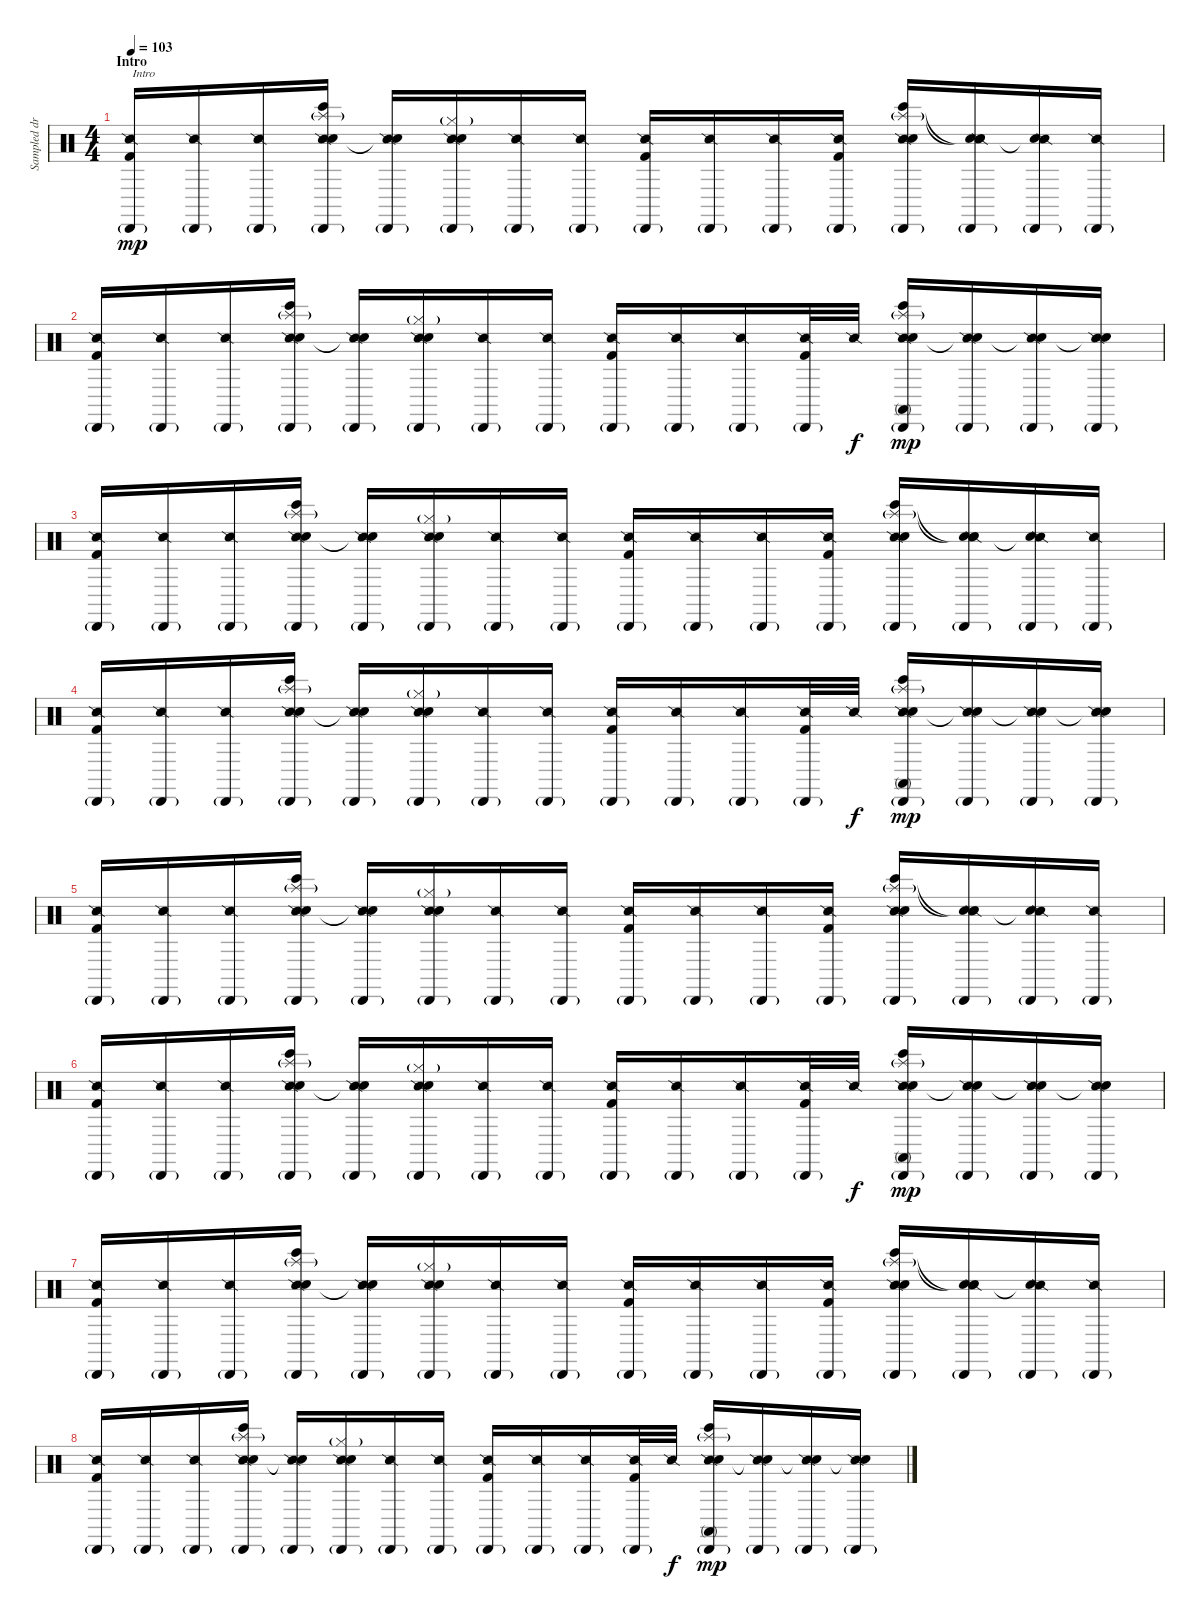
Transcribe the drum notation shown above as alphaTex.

\track ("Sampled drums (Rob with Joe)" "Sampled dr") {instrument percussion}
\staff {score}
\articulation defaults
\ts (4 4)
\section ("" "Intro")
\tempo 103
\clef neutral
\ks c
("Cabasa (hit)"{g} "Snare (side stick) 2" "Kick (hit) 2").16{txt "Intro" dy mp} ("Cabasa (hit)"{g} "Snare (side stick) 2").16 ("Cabasa (hit)"{g} "Snare (side stick) 2").16 ("Cabasa (hit)"{g} "Splash (hit)"{g} "Snare (side stick) 2" "Bongo High (hit)" "Snare (hit) 2").16 ("Cabasa (hit)"{g} "Snare (side stick) 2" "Snare (hit)"{t}).16 ("Cabasa (hit)"{g} "Hi-Hat (closed)"{g} "Snare (side stick) 2" "Snare (hit) 2").16 ("Cabasa (hit)"{g} "Snare (side stick) 2").16 ("Cabasa (hit)"{g} "Snare (side stick) 2").16 ("Cabasa (hit)"{g} "Snare (side stick) 2" "Kick (hit) 2").16 ("Cabasa (hit)"{g} "Snare (side stick) 2").16 ("Cabasa (hit)"{g} "Snare (side stick) 2").16 ("Cabasa (hit)"{g} "Snare (side stick) 2" "Kick (hit) 2").16 ("Cabasa (hit)"{g} "Splash (hit)"{g} "Snare (side stick) 2" "Bongo High (hit)" "Snare (hit) 2").16 ("Cabasa (hit)"{g} "Snare (hit)"{t} "Snare (side stick) 2" "Snare (hit)"{t}).16 ("Cabasa (hit)"{g} "Snare (hit)"{t} "Snare (side stick) 2").16 ("Cabasa (hit)"{g} "Snare (side stick) 2").16 |
("Cabasa (hit)"{g} "Snare (side stick) 2" "Kick (hit) 2").16 ("Cabasa (hit)"{g} "Snare (side stick) 2").16 ("Cabasa (hit)"{g} "Snare (side stick) 2").16 ("Cabasa (hit)"{g} "Splash (hit)"{g} "Snare (side stick) 2" "Bongo High (hit)" "Snare (hit) 2").16 ("Cabasa (hit)"{g} "Snare (side stick) 2" "Snare (hit)"{t}).16 ("Cabasa (hit)"{g} "Hi-Hat (closed)"{g} "Snare (side stick) 2" "Snare (hit) 2").16 ("Cabasa (hit)"{g} "Snare (side stick) 2").16 ("Cabasa (hit)"{g} "Snare (side stick) 2").16 ("Cabasa (hit)"{g} "Snare (side stick) 2" "Kick (hit) 2").16 ("Cabasa (hit)"{g} "Snare (side stick) 2").16 ("Cabasa (hit)"{g} "Snare (side stick) 2").16 ("Cabasa (hit)"{g} "Snare (side stick) 2" "Kick (hit) 2").32 "Snare (side stick) 2".32{dy f} ("Cabasa (hit)"{g} "Conga high (mute)" "Snare (side stick) 2" "Bongo High (hit)" "Snare (hit) 2" "Splash (hit)"{g}).16{dy mp} ("Cabasa (hit)"{g} "Snare (side stick) 2" "Snare (hit)"{t}).16 ("Cabasa (hit)"{g} "Snare (side stick) 2" "Snare (hit)"{t}).16 ("Cabasa (hit)"{g} "Snare (side stick) 2" "Snare (hit)"{t}).16 |
("Cabasa (hit)"{g} "Snare (side stick) 2" "Kick (hit) 2").16 ("Cabasa (hit)"{g} "Snare (side stick) 2").16 ("Cabasa (hit)"{g} "Snare (side stick) 2").16 ("Cabasa (hit)"{g} "Splash (hit)"{g} "Snare (side stick) 2" "Bongo High (hit)" "Snare (hit) 2").16 ("Cabasa (hit)"{g} "Snare (side stick) 2" "Snare (hit)"{t}).16 ("Cabasa (hit)"{g} "Hi-Hat (closed)"{g} "Snare (side stick) 2" "Snare (hit) 2").16 ("Cabasa (hit)"{g} "Snare (side stick) 2").16 ("Cabasa (hit)"{g} "Snare (side stick) 2").16 ("Cabasa (hit)"{g} "Snare (side stick) 2" "Kick (hit) 2").16 ("Cabasa (hit)"{g} "Snare (side stick) 2").16 ("Cabasa (hit)"{g} "Snare (side stick) 2").16 ("Cabasa (hit)"{g} "Snare (side stick) 2" "Kick (hit) 2").16 ("Cabasa (hit)"{g} "Splash (hit)"{g} "Snare (side stick) 2" "Bongo High (hit)" "Snare (hit) 2").16 ("Cabasa (hit)"{g} "Snare (hit)"{t} "Snare (side stick) 2" "Snare (hit)"{t}).16 ("Cabasa (hit)"{g} "Snare (hit)"{t} "Snare (side stick) 2").16 ("Cabasa (hit)"{g} "Snare (side stick) 2").16 |
("Cabasa (hit)"{g} "Snare (side stick) 2" "Kick (hit) 2").16 ("Cabasa (hit)"{g} "Snare (side stick) 2").16 ("Cabasa (hit)"{g} "Snare (side stick) 2").16 ("Cabasa (hit)"{g} "Splash (hit)"{g} "Snare (side stick) 2" "Bongo High (hit)" "Snare (hit) 2").16 ("Cabasa (hit)"{g} "Snare (side stick) 2" "Snare (hit)"{t}).16 ("Cabasa (hit)"{g} "Hi-Hat (closed)"{g} "Snare (side stick) 2" "Snare (hit) 2").16 ("Cabasa (hit)"{g} "Snare (side stick) 2").16 ("Cabasa (hit)"{g} "Snare (side stick) 2").16 ("Cabasa (hit)"{g} "Snare (side stick) 2" "Kick (hit) 2").16 ("Cabasa (hit)"{g} "Snare (side stick) 2").16 ("Cabasa (hit)"{g} "Snare (side stick) 2").16 ("Cabasa (hit)"{g} "Snare (side stick) 2" "Kick (hit) 2").32 "Snare (side stick) 2".32{dy f} ("Cabasa (hit)"{g} "Conga high (mute)" "Snare (side stick) 2" "Bongo High (hit)" "Snare (hit) 2" "Splash (hit)"{g}).16{dy mp} ("Cabasa (hit)"{g} "Snare (side stick) 2" "Snare (hit)"{t}).16 ("Cabasa (hit)"{g} "Snare (side stick) 2" "Snare (hit)"{t}).16 ("Cabasa (hit)"{g} "Snare (side stick) 2" "Snare (hit)"{t}).16 |
("Cabasa (hit)"{g} "Snare (side stick) 2" "Kick (hit) 2").16 ("Cabasa (hit)"{g} "Snare (side stick) 2").16 ("Cabasa (hit)"{g} "Snare (side stick) 2").16 ("Cabasa (hit)"{g} "Splash (hit)"{g} "Snare (side stick) 2" "Bongo High (hit)" "Snare (hit) 2").16 ("Cabasa (hit)"{g} "Snare (side stick) 2" "Snare (hit)"{t}).16 ("Cabasa (hit)"{g} "Hi-Hat (closed)"{g} "Snare (side stick) 2" "Snare (hit) 2").16 ("Cabasa (hit)"{g} "Snare (side stick) 2").16 ("Cabasa (hit)"{g} "Snare (side stick) 2").16 ("Cabasa (hit)"{g} "Snare (side stick) 2" "Kick (hit) 2").16 ("Cabasa (hit)"{g} "Snare (side stick) 2").16 ("Cabasa (hit)"{g} "Snare (side stick) 2").16 ("Cabasa (hit)"{g} "Snare (side stick) 2" "Kick (hit) 2").16 ("Cabasa (hit)"{g} "Splash (hit)"{g} "Snare (side stick) 2" "Bongo High (hit)" "Snare (hit) 2").16 ("Cabasa (hit)"{g} "Snare (hit)"{t} "Snare (side stick) 2" "Snare (hit)"{t}).16 ("Cabasa (hit)"{g} "Snare (hit)"{t} "Snare (side stick) 2").16 ("Cabasa (hit)"{g} "Snare (side stick) 2").16 |
("Cabasa (hit)"{g} "Snare (side stick) 2" "Kick (hit) 2").16 ("Cabasa (hit)"{g} "Snare (side stick) 2").16 ("Cabasa (hit)"{g} "Snare (side stick) 2").16 ("Cabasa (hit)"{g} "Splash (hit)"{g} "Snare (side stick) 2" "Bongo High (hit)" "Snare (hit) 2").16 ("Cabasa (hit)"{g} "Snare (side stick) 2" "Snare (hit)"{t}).16 ("Cabasa (hit)"{g} "Hi-Hat (closed)"{g} "Snare (side stick) 2" "Snare (hit) 2").16 ("Cabasa (hit)"{g} "Snare (side stick) 2").16 ("Cabasa (hit)"{g} "Snare (side stick) 2").16 ("Cabasa (hit)"{g} "Snare (side stick) 2" "Kick (hit) 2").16 ("Cabasa (hit)"{g} "Snare (side stick) 2").16 ("Cabasa (hit)"{g} "Snare (side stick) 2").16 ("Cabasa (hit)"{g} "Snare (side stick) 2" "Kick (hit) 2").32 "Snare (side stick) 2".32{dy f} ("Cabasa (hit)"{g} "Conga high (mute)" "Snare (side stick) 2" "Bongo High (hit)" "Snare (hit) 2" "Splash (hit)"{g}).16{dy mp} ("Cabasa (hit)"{g} "Snare (side stick) 2" "Snare (hit)"{t}).16 ("Cabasa (hit)"{g} "Snare (side stick) 2" "Snare (hit)"{t}).16 ("Cabasa (hit)"{g} "Snare (side stick) 2" "Snare (hit)"{t}).16 |
("Cabasa (hit)"{g} "Snare (side stick) 2" "Kick (hit) 2").16 ("Cabasa (hit)"{g} "Snare (side stick) 2").16 ("Cabasa (hit)"{g} "Snare (side stick) 2").16 ("Cabasa (hit)"{g} "Splash (hit)"{g} "Snare (side stick) 2" "Bongo High (hit)" "Snare (hit) 2").16 ("Cabasa (hit)"{g} "Snare (side stick) 2" "Snare (hit)"{t}).16 ("Cabasa (hit)"{g} "Hi-Hat (closed)"{g} "Snare (side stick) 2" "Snare (hit) 2").16 ("Cabasa (hit)"{g} "Snare (side stick) 2").16 ("Cabasa (hit)"{g} "Snare (side stick) 2").16 ("Cabasa (hit)"{g} "Snare (side stick) 2" "Kick (hit) 2").16 ("Cabasa (hit)"{g} "Snare (side stick) 2").16 ("Cabasa (hit)"{g} "Snare (side stick) 2").16 ("Cabasa (hit)"{g} "Snare (side stick) 2" "Kick (hit) 2").16 ("Cabasa (hit)"{g} "Splash (hit)"{g} "Snare (side stick) 2" "Bongo High (hit)" "Snare (hit) 2").16 ("Cabasa (hit)"{g} "Snare (hit)"{t} "Snare (side stick) 2" "Snare (hit)"{t}).16 ("Cabasa (hit)"{g} "Snare (hit)"{t} "Snare (side stick) 2").16 ("Cabasa (hit)"{g} "Snare (side stick) 2").16 |
("Cabasa (hit)"{g} "Snare (side stick) 2" "Kick (hit) 2").16 ("Cabasa (hit)"{g} "Snare (side stick) 2").16 ("Cabasa (hit)"{g} "Snare (side stick) 2").16 ("Cabasa (hit)"{g} "Splash (hit)"{g} "Snare (side stick) 2" "Bongo High (hit)" "Snare (hit) 2").16 ("Cabasa (hit)"{g} "Snare (side stick) 2" "Snare (hit)"{t}).16 ("Cabasa (hit)"{g} "Hi-Hat (closed)"{g} "Snare (side stick) 2" "Snare (hit) 2").16 ("Cabasa (hit)"{g} "Snare (side stick) 2").16 ("Cabasa (hit)"{g} "Snare (side stick) 2").16 ("Cabasa (hit)"{g} "Snare (side stick) 2" "Kick (hit) 2").16 ("Cabasa (hit)"{g} "Snare (side stick) 2").16 ("Cabasa (hit)"{g} "Snare (side stick) 2").16 ("Cabasa (hit)"{g} "Snare (side stick) 2" "Kick (hit) 2").32 "Snare (side stick) 2".32{dy f} ("Cabasa (hit)"{g} "Conga high (mute)" "Snare (side stick) 2" "Bongo High (hit)" "Snare (hit) 2" "Splash (hit)"{g}).16{dy mp} ("Cabasa (hit)"{g} "Snare (side stick) 2" "Snare (hit)"{t}).16 ("Cabasa (hit)"{g} "Snare (side stick) 2" "Snare (hit)"{t}).16 ("Cabasa (hit)"{g} "Snare (side stick) 2" "Snare (hit)"{t}).16
